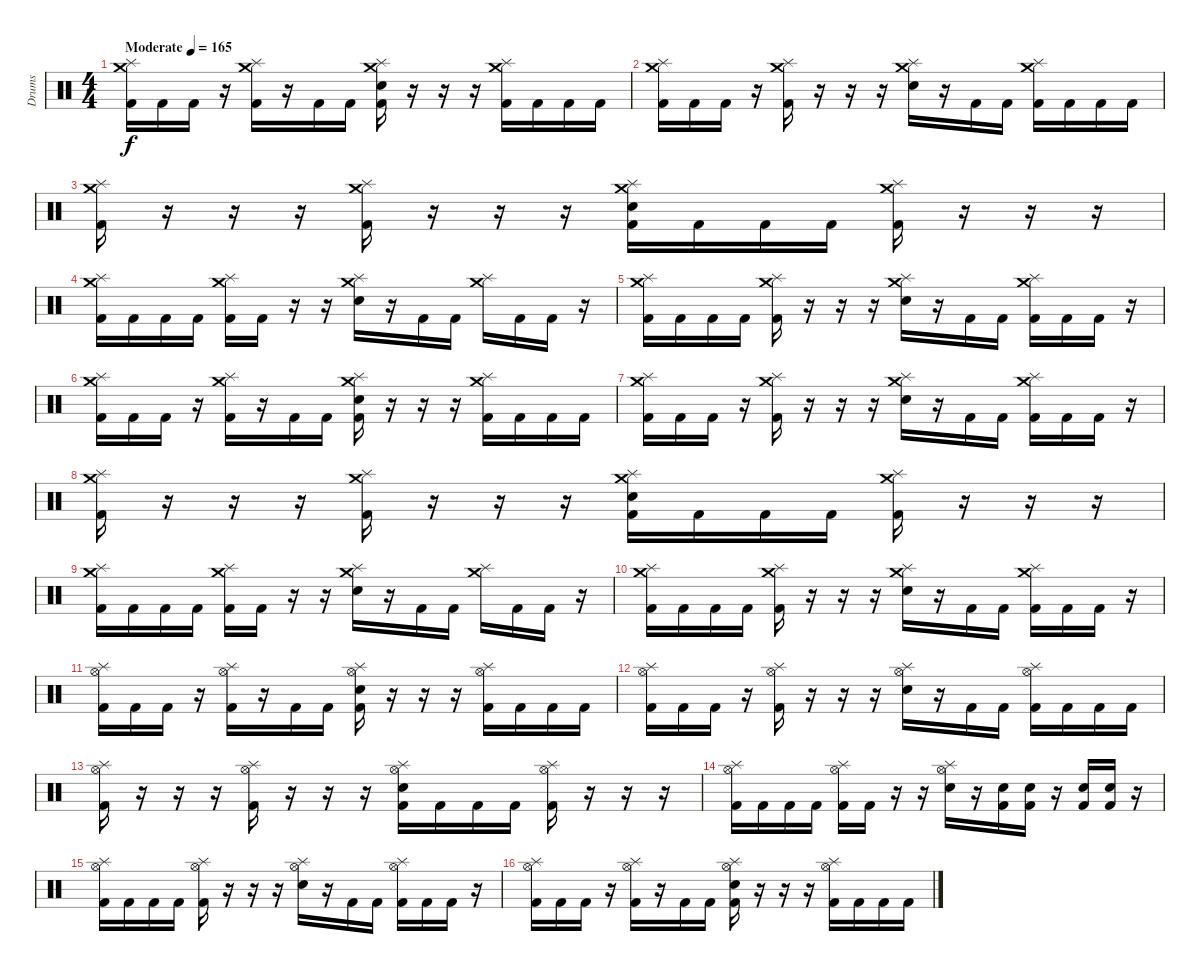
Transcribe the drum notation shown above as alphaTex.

\track ("Drums" "Drums") {instrument percussion}
\staff {score}
\articulation defaults
\ts (4 4)
\tempo (165 "Moderate")
\clef neutral
\ks c
("Crash medium (hit)" "Splash (hit)" "Kick (hit) 2").16{dy f} "Kick (hit) 2".16 "Kick (hit) 2".16 r.16 ("Crash medium (hit)" "Splash (hit)" "Kick (hit) 2").16 r.16 "Kick (hit) 2".16 "Kick (hit) 2".16 ("Crash medium (hit)" "Splash (hit)" "Electric Snare (hit)" "Kick (hit) 2").16 r.16 r.16 r.16 ("Crash medium (hit)" "Splash (hit)" "Kick (hit) 2").16 "Kick (hit) 2".16 "Kick (hit) 2".16 "Kick (hit) 2".16 |
("Crash medium (hit)" "Splash (hit)" "Kick (hit) 2").16 "Kick (hit) 2".16 "Kick (hit) 2".16 r.16 ("Crash medium (hit)" "Splash (hit)" "Kick (hit) 2").16 r.16 r.16 r.16 ("Crash medium (hit)" "Splash (hit)" "Electric Snare (hit)").16 r.16 "Kick (hit) 2".16 "Kick (hit) 2".16 ("Crash medium (hit)" "Splash (hit)" "Kick (hit) 2").16 "Kick (hit) 2".16 "Kick (hit) 2".16 "Kick (hit) 2".16 |
("Crash medium (hit)" "Splash (hit)" "Kick (hit) 2").16 r.16 r.16 r.16 ("Crash medium (hit)" "Splash (hit)" "Kick (hit) 2").16 r.16 r.16 r.16 ("Crash medium (hit)" "Splash (hit)" "Electric Snare (hit)" "Kick (hit) 2").16 "Kick (hit) 2".16 "Kick (hit) 2".16 "Kick (hit) 2".16 ("Crash medium (hit)" "Splash (hit)" "Kick (hit) 2").16 r.16 r.16 r.16 |
("Crash medium (hit)" "Splash (hit)" "Kick (hit) 2").16 "Kick (hit) 2".16 "Kick (hit) 2".16 "Kick (hit) 2".16 ("Crash medium (hit)" "Splash (hit)" "Kick (hit) 2").16 "Kick (hit) 2".16 r.16 r.16 ("Crash medium (hit)" "Splash (hit)" "Electric Snare (hit)").16 r.16 "Kick (hit) 2".16 "Kick (hit) 2".16 ("Crash medium (hit)" "Splash (hit)").16 "Kick (hit) 2".16 "Kick (hit) 2".16 r.16 |
("Crash medium (hit)" "Splash (hit)" "Kick (hit) 2").16 "Kick (hit) 2".16 "Kick (hit) 2".16 "Kick (hit) 2".16 ("Crash medium (hit)" "Splash (hit)" "Kick (hit) 2").16 r.16 r.16 r.16 ("Crash medium (hit)" "Splash (hit)" "Electric Snare (hit)").16 r.16 "Kick (hit) 2".16 "Kick (hit) 2".16 ("Crash medium (hit)" "Splash (hit)" "Kick (hit) 2").16 "Kick (hit) 2".16 "Kick (hit) 2".16 r.16 |
("Crash medium (hit)" "Splash (hit)" "Kick (hit) 2").16 "Kick (hit) 2".16 "Kick (hit) 2".16 r.16 ("Crash medium (hit)" "Splash (hit)" "Kick (hit) 2").16 r.16 "Kick (hit) 2".16 "Kick (hit) 2".16 ("Crash medium (hit)" "Splash (hit)" "Electric Snare (hit)" "Kick (hit) 2").16 r.16 r.16 r.16 ("Crash medium (hit)" "Splash (hit)" "Kick (hit) 2").16 "Kick (hit) 2".16 "Kick (hit) 2".16 "Kick (hit) 2".16 |
("Crash medium (hit)" "Splash (hit)" "Kick (hit) 2").16 "Kick (hit) 2".16 "Kick (hit) 2".16 r.16 ("Crash medium (hit)" "Splash (hit)" "Kick (hit) 2").16 r.16 r.16 r.16 ("Crash medium (hit)" "Splash (hit)" "Electric Snare (hit)").16 r.16 "Kick (hit) 2".16 "Kick (hit) 2".16 ("Crash medium (hit)" "Splash (hit)" "Kick (hit) 2").16 "Kick (hit) 2".16 "Kick (hit) 2".16 r.16 |
("Crash medium (hit)" "Splash (hit)" "Kick (hit) 2").16 r.16 r.16 r.16 ("Crash medium (hit)" "Splash (hit)" "Kick (hit) 2").16 r.16 r.16 r.16 ("Crash medium (hit)" "Splash (hit)" "Electric Snare (hit)" "Kick (hit) 2").16 "Kick (hit) 2".16 "Kick (hit) 2".16 "Kick (hit) 2".16 ("Crash medium (hit)" "Splash (hit)" "Kick (hit) 2").16 r.16 r.16 r.16 |
("Crash medium (hit)" "Splash (hit)" "Kick (hit) 2").16 "Kick (hit) 2".16 "Kick (hit) 2".16 "Kick (hit) 2".16 ("Crash medium (hit)" "Splash (hit)" "Kick (hit) 2").16 "Kick (hit) 2".16 r.16 r.16 ("Crash medium (hit)" "Splash (hit)" "Electric Snare (hit)").16 r.16 "Kick (hit) 2".16 "Kick (hit) 2".16 ("Crash medium (hit)" "Splash (hit)").16 "Kick (hit) 2".16 "Kick (hit) 2".16 r.16 |
("Crash medium (hit)" "Splash (hit)" "Kick (hit) 2").16 "Kick (hit) 2".16 "Kick (hit) 2".16 "Kick (hit) 2".16 ("Crash medium (hit)" "Splash (hit)" "Kick (hit) 2").16 r.16 r.16 r.16 ("Crash medium (hit)" "Splash (hit)" "Electric Snare (hit)").16 r.16 "Kick (hit) 2".16 "Kick (hit) 2".16 ("Crash medium (hit)" "Splash (hit)" "Kick (hit) 2").16 "Kick (hit) 2".16 "Kick (hit) 2".16 r.16 |
("Splash (hit)" "Hi-Hat (open)" "Kick (hit) 2").16 "Kick (hit) 2".16 "Kick (hit) 2".16 r.16 ("Splash (hit)" "Hi-Hat (open)" "Kick (hit) 2").16 r.16 "Kick (hit) 2".16 "Kick (hit) 2".16 ("Splash (hit)" "Hi-Hat (open)" "Electric Snare (hit)" "Kick (hit) 2").16 r.16 r.16 r.16 ("Splash (hit)" "Hi-Hat (open)" "Kick (hit) 2").16 "Kick (hit) 2".16 "Kick (hit) 2".16 "Kick (hit) 2".16 |
("Splash (hit)" "Hi-Hat (open)" "Kick (hit) 2").16 "Kick (hit) 2".16 "Kick (hit) 2".16 r.16 ("Splash (hit)" "Hi-Hat (open)" "Kick (hit) 2").16 r.16 r.16 r.16 ("Splash (hit)" "Hi-Hat (open)" "Electric Snare (hit)").16 r.16 "Kick (hit) 2".16 "Kick (hit) 2".16 ("Splash (hit)" "Hi-Hat (open)" "Kick (hit) 2").16 "Kick (hit) 2".16 "Kick (hit) 2".16 "Kick (hit) 2".16 |
("Splash (hit)" "Hi-Hat (open)" "Kick (hit) 2").16 r.16 r.16 r.16 ("Splash (hit)" "Hi-Hat (open)" "Kick (hit) 2").16 r.16 r.16 r.16 ("Splash (hit)" "Hi-Hat (open)" "Electric Snare (hit)" "Kick (hit) 2").16 "Kick (hit) 2".16 "Kick (hit) 2".16 "Kick (hit) 2".16 ("Splash (hit)" "Hi-Hat (open)" "Kick (hit) 2").16 r.16 r.16 r.16 |
("Splash (hit)" "Hi-Hat (open)" "Kick (hit) 2").16 "Kick (hit) 2".16 "Kick (hit) 2".16 "Kick (hit) 2".16 ("Splash (hit)" "Hi-Hat (open)" "Kick (hit) 2").16 "Kick (hit) 2".16 r.16 r.16 ("Splash (hit)" "Hi-Hat (open)" "Electric Snare (hit)").16 r.16 ("Electric Snare (hit)" "Kick (hit) 2").16 ("Electric Snare (hit)" "Kick (hit) 2").16 r.16 ("Electric Snare (hit)" "Kick (hit) 2").16 ("Electric Snare (hit)" "Kick (hit) 2").16 r.16 |
("Splash (hit)" "Hi-Hat (open)" "Kick (hit) 2").16 "Kick (hit) 2".16 "Kick (hit) 2".16 "Kick (hit) 2".16 ("Splash (hit)" "Hi-Hat (open)" "Kick (hit) 2").16 r.16 r.16 r.16 ("Splash (hit)" "Hi-Hat (open)" "Electric Snare (hit)").16 r.16 "Kick (hit) 2".16 "Kick (hit) 2".16 ("Splash (hit)" "Hi-Hat (open)" "Kick (hit) 2").16 "Kick (hit) 2".16 "Kick (hit) 2".16 r.16 |
("Splash (hit)" "Hi-Hat (open)" "Kick (hit) 2").16 "Kick (hit) 2".16 "Kick (hit) 2".16 r.16 ("Splash (hit)" "Hi-Hat (open)" "Kick (hit) 2").16 r.16 "Kick (hit) 2".16 "Kick (hit) 2".16 ("Splash (hit)" "Hi-Hat (open)" "Electric Snare (hit)" "Kick (hit) 2").16 r.16 r.16 r.16 ("Splash (hit)" "Hi-Hat (open)" "Kick (hit) 2").16 "Kick (hit) 2".16 "Kick (hit) 2".16 "Kick (hit) 2".16
